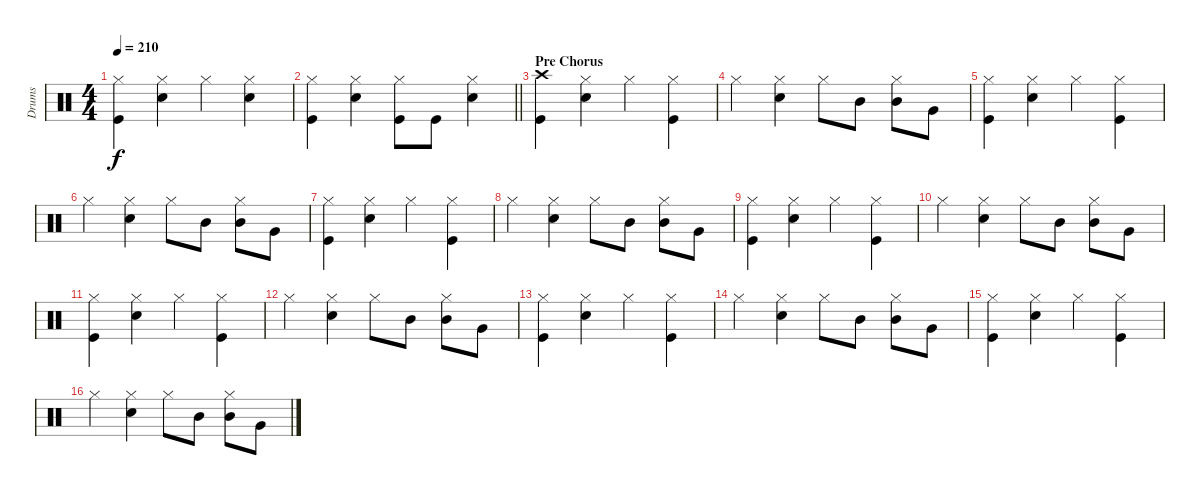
\track ("Drums" "Drums") {instrument percussion}
\staff {score}
\articulation defaults
\ts (4 4)
\tempo 210
\clef neutral
\ks c
("Hi-Hat (closed)" "Kick (hit)").4{dy f} ("Hi-Hat (closed)" "Snare (hit) 2").4 "Hi-Hat (closed)".4 ("Hi-Hat (closed)" "Snare (hit) 2").4 |
\barLineRight lightlight
("Hi-Hat (closed)" "Kick (hit)").4 ("Hi-Hat (closed)" "Snare (hit) 2").4 ("Hi-Hat (closed)" "Kick (hit)").8 "Kick (hit)".8 ("Hi-Hat (closed)" "Snare (hit) 2").4 |
\section ("" "Pre Chorus")
("Crash high (hit)" "Kick (hit)").4 ("Hi-Hat (closed)" "Snare (hit) 2").4 "Hi-Hat (closed)".4 ("Hi-Hat (closed)" "Kick (hit)").4 |
"Hi-Hat (closed)".4 ("Hi-Hat (closed)" "Snare (hit) 2").4 "Hi-Hat (closed)".8 "Mid Tom (hit)".8 ("Hi-Hat (closed)" "Mid Tom (hit)").8 "Very Low Tom (hit)".8 |
("Hi-Hat (closed)" "Kick (hit)").4 ("Hi-Hat (closed)" "Snare (hit) 2").4 "Hi-Hat (closed)".4 ("Hi-Hat (closed)" "Kick (hit)").4 |
"Hi-Hat (closed)".4 ("Hi-Hat (closed)" "Snare (hit) 2").4 "Hi-Hat (closed)".8 "Mid Tom (hit)".8 ("Hi-Hat (closed)" "Mid Tom (hit)").8 "Very Low Tom (hit)".8 |
("Hi-Hat (closed)" "Kick (hit)").4 ("Hi-Hat (closed)" "Snare (hit) 2").4 "Hi-Hat (closed)".4 ("Hi-Hat (closed)" "Kick (hit)").4 |
"Hi-Hat (closed)".4 ("Hi-Hat (closed)" "Snare (hit) 2").4 "Hi-Hat (closed)".8 "Mid Tom (hit)".8 ("Hi-Hat (closed)" "Mid Tom (hit)").8 "Very Low Tom (hit)".8 |
("Hi-Hat (closed)" "Kick (hit)").4 ("Hi-Hat (closed)" "Snare (hit) 2").4 "Hi-Hat (closed)".4 ("Hi-Hat (closed)" "Kick (hit)").4 |
"Hi-Hat (closed)".4 ("Hi-Hat (closed)" "Snare (hit) 2").4 "Hi-Hat (closed)".8 "Mid Tom (hit)".8 ("Hi-Hat (closed)" "Mid Tom (hit)").8 "Very Low Tom (hit)".8 |
("Hi-Hat (closed)" "Kick (hit)").4 ("Hi-Hat (closed)" "Snare (hit) 2").4 "Hi-Hat (closed)".4 ("Hi-Hat (closed)" "Kick (hit)").4 |
"Hi-Hat (closed)".4 ("Hi-Hat (closed)" "Snare (hit) 2").4 "Hi-Hat (closed)".8 "Mid Tom (hit)".8 ("Hi-Hat (closed)" "Mid Tom (hit)").8 "Very Low Tom (hit)".8 |
("Hi-Hat (closed)" "Kick (hit)").4 ("Hi-Hat (closed)" "Snare (hit) 2").4 "Hi-Hat (closed)".4 ("Hi-Hat (closed)" "Kick (hit)").4 |
"Hi-Hat (closed)".4 ("Hi-Hat (closed)" "Snare (hit) 2").4 "Hi-Hat (closed)".8 "Mid Tom (hit)".8 ("Hi-Hat (closed)" "Mid Tom (hit)").8 "Very Low Tom (hit)".8 |
("Hi-Hat (closed)" "Kick (hit)").4 ("Hi-Hat (closed)" "Snare (hit) 2").4 "Hi-Hat (closed)".4 ("Hi-Hat (closed)" "Kick (hit)").4 |
"Hi-Hat (closed)".4 ("Hi-Hat (closed)" "Snare (hit) 2").4 "Hi-Hat (closed)".8 "Mid Tom (hit)".8 ("Hi-Hat (closed)" "Mid Tom (hit)").8 "Very Low Tom (hit)".8
